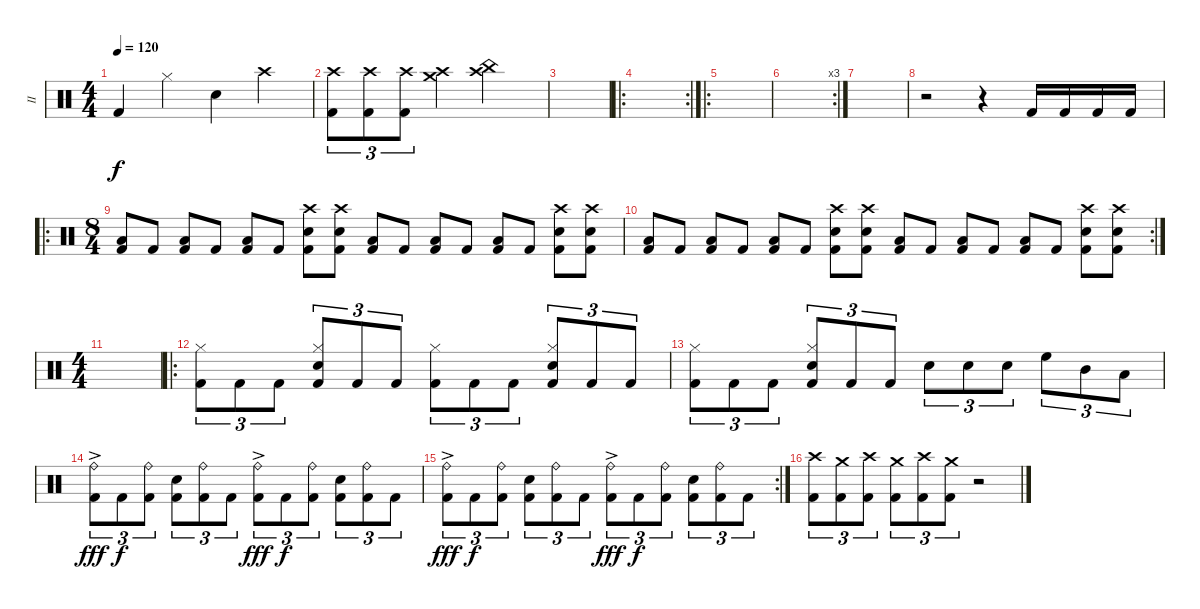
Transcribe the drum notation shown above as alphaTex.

\track ("II" "II") {instrument percussion}
\staff {score}
\articulation defaults
\ts (4 4)
\tempo 120
\clef neutral
\ks c "Kick (hit) 2".4{dy f} "Hi-Hat (closed)".4 "Snare (hit) 2".4 "Crash high (hit)".4
|
("Kick (hit) 2" "Crash high (hit)").8{tu (3 2)} ("Kick (hit) 2" "Crash high (hit)").8{tu (3 2)} ("Kick (hit) 2" "Crash high (hit)").8{tu (3 2)} ("Crash high (hit)" "Crash medium (hit)").4 ("Crash high (hit)" "China (hit)").2 |
|
\ro
\rc 2
|
\ro
|
\rc 3
|
|
r.2 r.4 "Kick (hit) 2".16 "Kick (hit) 2".16 "Kick (hit) 2".16 "Kick (hit) 2".16 |
\ro
\ts (8 4)
("Kick (hit) 2" "Low Floor Tom (hit)").8 "Kick (hit) 2".8 ("Kick (hit) 2" "Low Floor Tom (hit)").8 "Kick (hit) 2".8 ("Kick (hit) 2" "Low Floor Tom (hit)").8 "Kick (hit) 2".8 ("Kick (hit) 2" "Crash high (hit)" "Snare (hit) 2").8 ("Kick (hit) 2" "Crash high (hit)" "Snare (hit) 2").8 ("Kick (hit) 2" "Low Floor Tom (hit)").8 "Kick (hit) 2".8 ("Kick (hit) 2" "Low Floor Tom (hit)").8 "Kick (hit) 2".8 ("Kick (hit) 2" "Low Floor Tom (hit)").8 "Kick (hit) 2".8 ("Kick (hit) 2" "Crash high (hit)" "Snare (hit) 2").8 ("Kick (hit) 2" "Crash high (hit)" "Snare (hit) 2").8 |
\rc 2
("Kick (hit) 2" "Low Floor Tom (hit)").8 "Kick (hit) 2".8 ("Kick (hit) 2" "Low Floor Tom (hit)").8 "Kick (hit) 2".8 ("Kick (hit) 2" "Low Floor Tom (hit)").8 "Kick (hit) 2".8 ("Kick (hit) 2" "Crash high (hit)" "Snare (hit) 2").8 ("Kick (hit) 2" "Crash high (hit)" "Snare (hit) 2").8 ("Kick (hit) 2" "Low Floor Tom (hit)").8 "Kick (hit) 2".8 ("Kick (hit) 2" "Low Floor Tom (hit)").8 "Kick (hit) 2".8 ("Kick (hit) 2" "Low Floor Tom (hit)").8 "Kick (hit) 2".8 ("Kick (hit) 2" "Crash high (hit)" "Snare (hit) 2").8 ("Kick (hit) 2" "Crash high (hit)" "Snare (hit) 2").8 |
\ts (4 4)
|
\ro
("Kick (hit) 2" "Hi-Hat (closed)").8{tu (3 2)} "Kick (hit) 2".8{tu (3 2)} "Kick (hit) 2".8{tu (3 2)} ("Kick (hit) 2" "Hi-Hat (closed)" "Snare (hit) 2").8{tu (3 2)} "Kick (hit) 2".8{tu (3 2)} "Kick (hit) 2".8{tu (3 2)} ("Kick (hit) 2" "Hi-Hat (closed)").8{tu (3 2)} "Kick (hit) 2".8{tu (3 2)} "Kick (hit) 2".8{tu (3 2)} ("Kick (hit) 2" "Hi-Hat (closed)" "Snare (hit) 2").8{tu (3 2)} "Kick (hit) 2".8{tu (3 2)} "Kick (hit) 2".8{tu (3 2)} |
("Kick (hit) 2" "Hi-Hat (closed)").8{tu (3 2)} "Kick (hit) 2".8{tu (3 2)} "Kick (hit) 2".8{tu (3 2)} ("Kick (hit) 2" "Hi-Hat (closed)" "Snare (hit) 2").8{tu (3 2)} "Kick (hit) 2".8{tu (3 2)} "Kick (hit) 2".8{tu (3 2)} "Snare (hit) 2".8{tu (3 2)} "Snare (hit) 2".8{tu (3 2)} "Snare (hit) 2".8{tu (3 2)} "High Floor Tom (hit)".8{tu (3 2)} "Mid Tom (hit)".8{tu (3 2)} "Low Floor Tom (hit)".8{tu (3 2)} |
("Kick (hit) 2" "Ride (bell)"{ac}).8{tu (3 2) dy fff} "Kick (hit) 2".8{tu (3 2) dy f} ("Kick (hit) 2" "Ride (bell)").8{tu (3 2)} ("Kick (hit) 2" "Snare (hit) 2").8{tu (3 2)} ("Kick (hit) 2" "Ride (bell)").8{tu (3 2)} "Kick (hit) 2".8{tu (3 2)} ("Kick (hit) 2" "Ride (bell)"{ac}).8{tu (3 2) dy fff} "Kick (hit) 2".8{tu (3 2) dy f} ("Kick (hit) 2" "Ride (bell)").8{tu (3 2)} ("Kick (hit) 2" "Snare (hit) 2").8{tu (3 2)} ("Kick (hit) 2" "Ride (bell)").8{tu (3 2)} "Kick (hit) 2".8{tu (3 2)} |
\rc 2
("Kick (hit) 2" "Ride (bell)"{ac}).8{tu (3 2) dy fff} "Kick (hit) 2".8{tu (3 2) dy f} ("Kick (hit) 2" "Ride (bell)").8{tu (3 2)} ("Kick (hit) 2" "Snare (hit) 2").8{tu (3 2)} ("Kick (hit) 2" "Ride (bell)").8{tu (3 2)} "Kick (hit) 2".8{tu (3 2)} ("Kick (hit) 2" "Ride (bell)"{ac}).8{tu (3 2) dy fff} "Kick (hit) 2".8{tu (3 2) dy f} ("Kick (hit) 2" "Ride (bell)").8{tu (3 2)} ("Kick (hit) 2" "Snare (hit) 2").8{tu (3 2)} ("Kick (hit) 2" "Ride (bell)").8{tu (3 2)} "Kick (hit) 2".8{tu (3 2)} |
("Kick (hit) 2" "Crash high (hit)").8{tu (3 2)} ("Kick (hit) 2" "Crash medium (hit)").8{tu (3 2)} ("Kick (hit) 2" "Crash high (hit)").8{tu (3 2)} ("Kick (hit) 2" "Crash medium (hit)").8{tu (3 2)} ("Kick (hit) 2" "Crash high (hit)").8{tu (3 2)} ("Kick (hit) 2" "Crash medium (hit)").8{tu (3 2)} r.2
